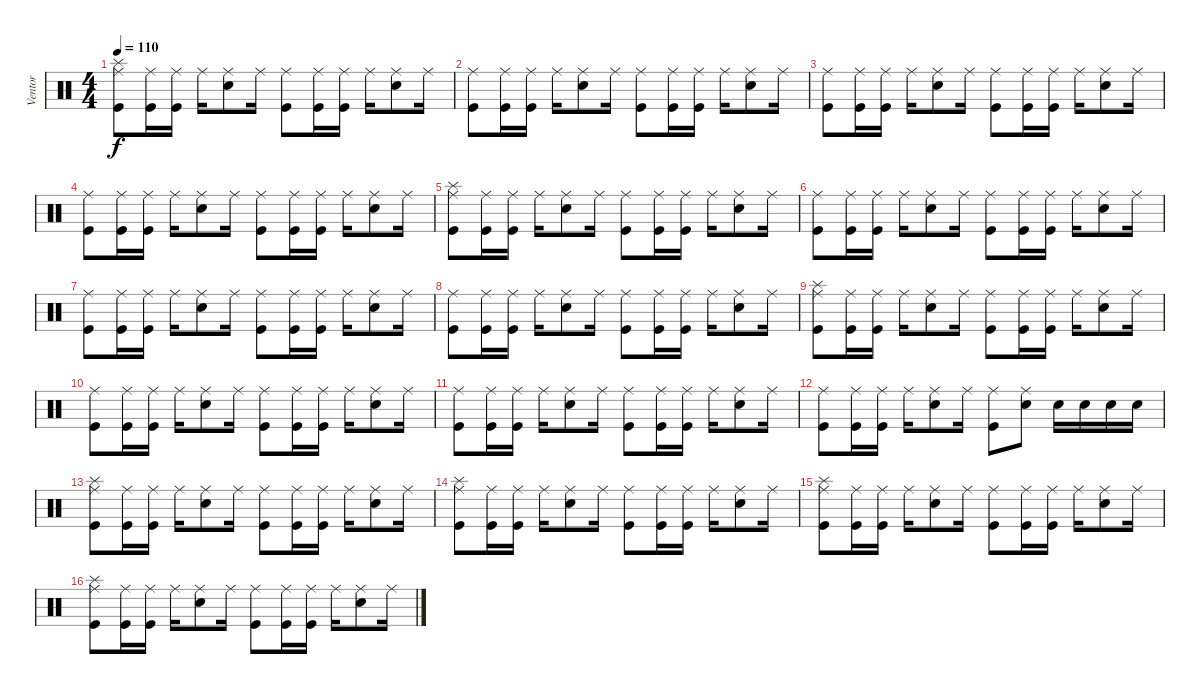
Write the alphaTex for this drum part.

\track ("Ventor" "Ventor") {instrument percussion}
\staff {score}
\articulation defaults
\ts (4 4)
\tempo 110
\clef neutral
\ks c
("Kick (hit)" "Ride (middle)" "Splash (hit)").8{dy f} ("Kick (hit)" "Ride (middle)").16 ("Kick (hit)" "Ride (middle)").16 "Ride (middle)".16 ("Snare (hit) 2" "Ride (middle)").8 "Ride (middle)".16 ("Kick (hit)" "Ride (middle)").8 ("Kick (hit)" "Ride (middle)").16 ("Kick (hit)" "Ride (middle)").16 "Ride (middle)".16 ("Snare (hit) 2" "Ride (middle)").8 "Ride (middle)".16 |
("Kick (hit)" "Ride (middle)").8 ("Kick (hit)" "Ride (middle)").16 ("Kick (hit)" "Ride (middle)").16 "Ride (middle)".16 ("Snare (hit) 2" "Ride (middle)").8 "Ride (middle)".16 ("Kick (hit)" "Ride (middle)").8 ("Kick (hit)" "Ride (middle)").16 ("Kick (hit)" "Ride (middle)").16 "Ride (middle)".16 ("Snare (hit) 2" "Ride (middle)").8 "Ride (middle)".16 |
("Kick (hit)" "Ride (middle)").8 ("Kick (hit)" "Ride (middle)").16 ("Kick (hit)" "Ride (middle)").16 "Ride (middle)".16 ("Snare (hit) 2" "Ride (middle)").8 "Ride (middle)".16 ("Kick (hit)" "Ride (middle)").8 ("Kick (hit)" "Ride (middle)").16 ("Kick (hit)" "Ride (middle)").16 "Ride (middle)".16 ("Snare (hit) 2" "Ride (middle)").8 "Ride (middle)".16 |
("Kick (hit)" "Ride (middle)").8 ("Kick (hit)" "Ride (middle)").16 ("Kick (hit)" "Ride (middle)").16 "Ride (middle)".16 ("Snare (hit) 2" "Ride (middle)").8 "Ride (middle)".16 ("Kick (hit)" "Ride (middle)").8 ("Kick (hit)" "Ride (middle)").16 ("Kick (hit)" "Ride (middle)").16 "Ride (middle)".16 ("Snare (hit) 2" "Ride (middle)").8 "Ride (middle)".16 |
("Kick (hit)" "Ride (middle)" "Splash (hit)").8 ("Kick (hit)" "Ride (middle)").16 ("Kick (hit)" "Ride (middle)").16 "Ride (middle)".16 ("Snare (hit) 2" "Ride (middle)").8 "Ride (middle)".16 ("Kick (hit)" "Ride (middle)").8 ("Kick (hit)" "Ride (middle)").16 ("Kick (hit)" "Ride (middle)").16 "Ride (middle)".16 ("Snare (hit) 2" "Ride (middle)").8 "Ride (middle)".16 |
("Kick (hit)" "Ride (middle)").8 ("Kick (hit)" "Ride (middle)").16 ("Kick (hit)" "Ride (middle)").16 "Ride (middle)".16 ("Snare (hit) 2" "Ride (middle)").8 "Ride (middle)".16 ("Kick (hit)" "Ride (middle)").8 ("Kick (hit)" "Ride (middle)").16 ("Kick (hit)" "Ride (middle)").16 "Ride (middle)".16 ("Snare (hit) 2" "Ride (middle)").8 "Ride (middle)".16 |
("Kick (hit)" "Ride (middle)").8 ("Kick (hit)" "Ride (middle)").16 ("Kick (hit)" "Ride (middle)").16 "Ride (middle)".16 ("Snare (hit) 2" "Ride (middle)").8 "Ride (middle)".16 ("Kick (hit)" "Ride (middle)").8 ("Kick (hit)" "Ride (middle)").16 ("Kick (hit)" "Ride (middle)").16 "Ride (middle)".16 ("Snare (hit) 2" "Ride (middle)").8 "Ride (middle)".16 |
("Kick (hit)" "Ride (middle)").8 ("Kick (hit)" "Ride (middle)").16 ("Kick (hit)" "Ride (middle)").16 "Ride (middle)".16 ("Snare (hit) 2" "Ride (middle)").8 "Ride (middle)".16 ("Kick (hit)" "Ride (middle)").8 ("Kick (hit)" "Ride (middle)").16 ("Kick (hit)" "Ride (middle)").16 "Ride (middle)".16 ("Snare (hit) 2" "Ride (middle)").8 "Ride (middle)".16 |
("Kick (hit)" "Ride (middle)" "Splash (hit)").8 ("Kick (hit)" "Ride (middle)").16 ("Kick (hit)" "Ride (middle)").16 "Ride (middle)".16 ("Snare (hit) 2" "Ride (middle)").8 "Ride (middle)".16 ("Kick (hit)" "Ride (middle)").8 ("Kick (hit)" "Ride (middle)").16 ("Kick (hit)" "Ride (middle)").16 "Ride (middle)".16 ("Snare (hit) 2" "Ride (middle)").8 "Ride (middle)".16 |
("Kick (hit)" "Ride (middle)").8 ("Kick (hit)" "Ride (middle)").16 ("Kick (hit)" "Ride (middle)").16 "Ride (middle)".16 ("Snare (hit) 2" "Ride (middle)").8 "Ride (middle)".16 ("Kick (hit)" "Ride (middle)").8 ("Kick (hit)" "Ride (middle)").16 ("Kick (hit)" "Ride (middle)").16 "Ride (middle)".16 ("Snare (hit) 2" "Ride (middle)").8 "Ride (middle)".16 |
("Kick (hit)" "Ride (middle)").8 ("Kick (hit)" "Ride (middle)").16 ("Kick (hit)" "Ride (middle)").16 "Ride (middle)".16 ("Snare (hit) 2" "Ride (middle)").8 "Ride (middle)".16 ("Kick (hit)" "Ride (middle)").8 ("Kick (hit)" "Ride (middle)").16 ("Kick (hit)" "Ride (middle)").16 "Ride (middle)".16 ("Snare (hit) 2" "Ride (middle)").8 "Ride (middle)".16 |
("Kick (hit)" "Ride (middle)").8 ("Kick (hit)" "Ride (middle)").16 ("Kick (hit)" "Ride (middle)").16 "Ride (middle)".16 ("Snare (hit) 2" "Ride (middle)").8 "Ride (middle)".16 ("Kick (hit)" "Ride (middle)").8 ("Snare (hit) 2" "Ride (middle)").8 "Snare (hit) 2".16 "Snare (hit) 2".16 "Snare (hit) 2".16 "Snare (hit) 2".16 |
("Kick (hit)" "Ride (middle)" "Splash (hit)").8 ("Kick (hit)" "Ride (middle)").16 ("Kick (hit)" "Ride (middle)").16 "Ride (middle)".16 ("Snare (hit) 2" "Ride (middle)").8 "Ride (middle)".16 ("Kick (hit)" "Ride (middle)").8 ("Kick (hit)" "Ride (middle)").16 ("Kick (hit)" "Ride (middle)").16 "Ride (middle)".16 ("Snare (hit) 2" "Ride (middle)").8 "Ride (middle)".16 |
("Kick (hit)" "Ride (middle)" "Splash (hit)").8 ("Kick (hit)" "Ride (middle)").16 ("Kick (hit)" "Ride (middle)").16 "Ride (middle)".16 ("Snare (hit) 2" "Ride (middle)").8 "Ride (middle)".16 ("Kick (hit)" "Ride (middle)").8 ("Kick (hit)" "Ride (middle)").16 ("Kick (hit)" "Ride (middle)").16 "Ride (middle)".16 ("Snare (hit) 2" "Ride (middle)").8 "Ride (middle)".16 |
("Kick (hit)" "Ride (middle)" "Splash (hit)").8 ("Kick (hit)" "Ride (middle)").16 ("Kick (hit)" "Ride (middle)").16 "Ride (middle)".16 ("Snare (hit) 2" "Ride (middle)").8 "Ride (middle)".16 ("Kick (hit)" "Ride (middle)").8 ("Kick (hit)" "Ride (middle)").16 ("Kick (hit)" "Ride (middle)").16 "Ride (middle)".16 ("Snare (hit) 2" "Ride (middle)").8 "Ride (middle)".16 |
("Kick (hit)" "Ride (middle)" "Splash (hit)").8 ("Kick (hit)" "Ride (middle)").16 ("Kick (hit)" "Ride (middle)").16 "Ride (middle)".16 ("Snare (hit) 2" "Ride (middle)").8 "Ride (middle)".16 ("Kick (hit)" "Ride (middle)").8 ("Kick (hit)" "Ride (middle)").16 ("Kick (hit)" "Ride (middle)").16 "Ride (middle)".16 ("Snare (hit) 2" "Ride (middle)").8 "Ride (middle)".16
